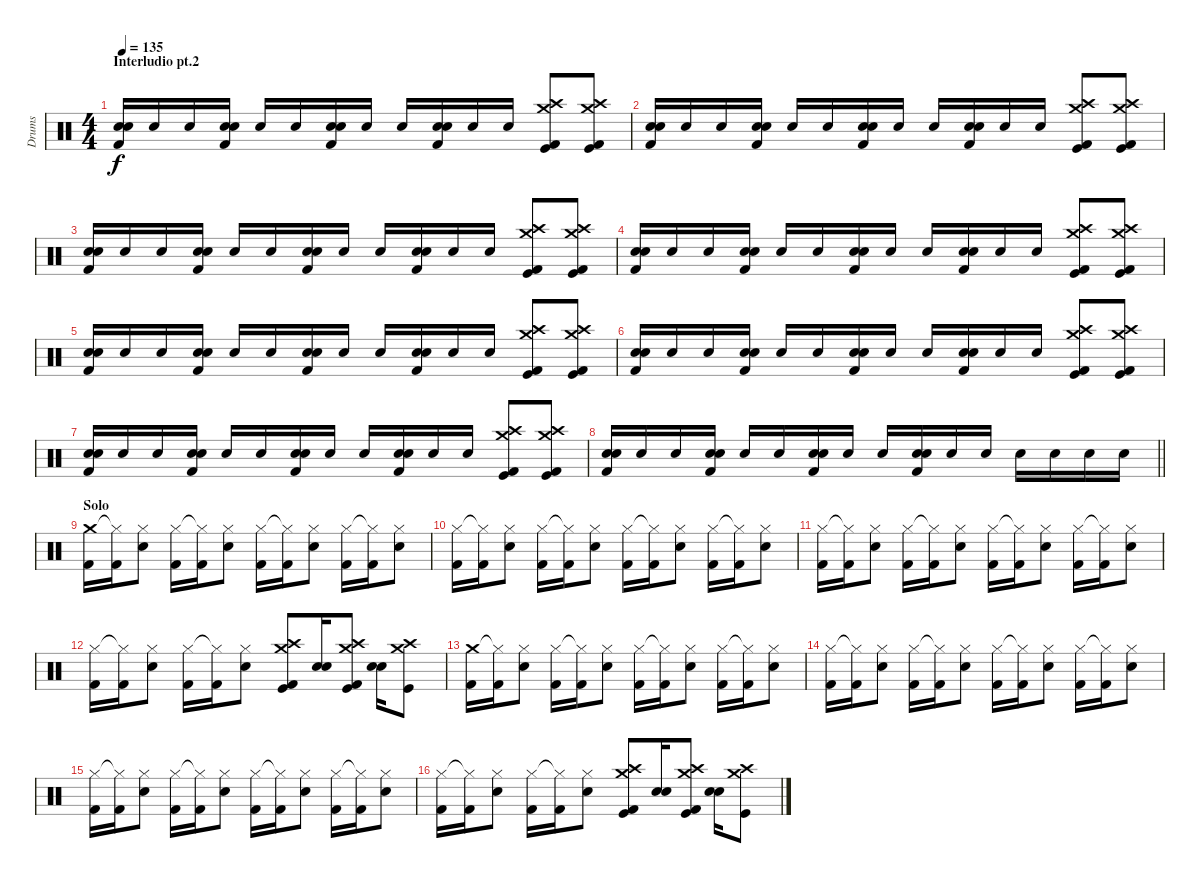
\track ("Drums" "Drums") {instrument percussion}
\staff {score}
\articulation defaults
\ts (4 4)
\section ("" "Interludio pt.2")
\tempo 135
\clef neutral
\ks c
("Electric Snare (hit)" "Snare (hit) 2" "Kick (hit) 2").16{dy f} "Snare (hit) 2".16 "Snare (hit) 2".16 ("Electric Snare (hit)" "Snare (hit) 2" "Kick (hit) 2").16 "Snare (hit) 2".16 "Snare (hit) 2".16 ("Electric Snare (hit)" "Snare (hit) 2" "Kick (hit) 2").16 "Snare (hit) 2".16 "Snare (hit) 2".16 ("Electric Snare (hit)" "Snare (hit) 2" "Kick (hit) 2").16 "Snare (hit) 2".16 "Snare (hit) 2".16 ("Crash medium (hit)" "Crash high (hit)" "Kick (hit) 2" "Kick (hit)").8 ("Crash medium (hit)" "Crash high (hit)" "Kick (hit) 2" "Kick (hit)").8 |
("Electric Snare (hit)" "Snare (hit) 2" "Kick (hit) 2").16 "Snare (hit) 2".16 "Snare (hit) 2".16 ("Electric Snare (hit)" "Snare (hit) 2" "Kick (hit) 2").16 "Snare (hit) 2".16 "Snare (hit) 2".16 ("Electric Snare (hit)" "Snare (hit) 2" "Kick (hit) 2").16 "Snare (hit) 2".16 "Snare (hit) 2".16 ("Electric Snare (hit)" "Snare (hit) 2" "Kick (hit) 2").16 "Snare (hit) 2".16 "Snare (hit) 2".16 ("Crash medium (hit)" "Crash high (hit)" "Kick (hit) 2" "Kick (hit)").8 ("Crash medium (hit)" "Crash high (hit)" "Kick (hit) 2" "Kick (hit)").8 |
("Electric Snare (hit)" "Snare (hit) 2" "Kick (hit) 2").16 "Snare (hit) 2".16 "Snare (hit) 2".16 ("Electric Snare (hit)" "Snare (hit) 2" "Kick (hit) 2").16 "Snare (hit) 2".16 "Snare (hit) 2".16 ("Electric Snare (hit)" "Snare (hit) 2" "Kick (hit) 2").16 "Snare (hit) 2".16 "Snare (hit) 2".16 ("Electric Snare (hit)" "Snare (hit) 2" "Kick (hit) 2").16 "Snare (hit) 2".16 "Snare (hit) 2".16 ("Crash medium (hit)" "Crash high (hit)" "Kick (hit) 2" "Kick (hit)").8 ("Crash medium (hit)" "Crash high (hit)" "Kick (hit) 2" "Kick (hit)").8 |
("Electric Snare (hit)" "Snare (hit) 2" "Kick (hit) 2").16 "Snare (hit) 2".16 "Snare (hit) 2".16 ("Electric Snare (hit)" "Snare (hit) 2" "Kick (hit) 2").16 "Snare (hit) 2".16 "Snare (hit) 2".16 ("Electric Snare (hit)" "Snare (hit) 2" "Kick (hit) 2").16 "Snare (hit) 2".16 "Snare (hit) 2".16 ("Electric Snare (hit)" "Snare (hit) 2" "Kick (hit) 2").16 "Snare (hit) 2".16 "Snare (hit) 2".16 ("Crash medium (hit)" "Crash high (hit)" "Kick (hit) 2" "Kick (hit)").8 ("Crash medium (hit)" "Crash high (hit)" "Kick (hit) 2" "Kick (hit)").8 |
("Electric Snare (hit)" "Snare (hit) 2" "Kick (hit) 2").16 "Snare (hit) 2".16 "Snare (hit) 2".16 ("Electric Snare (hit)" "Snare (hit) 2" "Kick (hit) 2").16 "Snare (hit) 2".16 "Snare (hit) 2".16 ("Electric Snare (hit)" "Snare (hit) 2" "Kick (hit) 2").16 "Snare (hit) 2".16 "Snare (hit) 2".16 ("Electric Snare (hit)" "Snare (hit) 2" "Kick (hit) 2").16 "Snare (hit) 2".16 "Snare (hit) 2".16 ("Crash medium (hit)" "Crash high (hit)" "Kick (hit) 2" "Kick (hit)").8 ("Crash medium (hit)" "Crash high (hit)" "Kick (hit) 2" "Kick (hit)").8 |
("Electric Snare (hit)" "Snare (hit) 2" "Kick (hit) 2").16 "Snare (hit) 2".16 "Snare (hit) 2".16 ("Electric Snare (hit)" "Snare (hit) 2" "Kick (hit) 2").16 "Snare (hit) 2".16 "Snare (hit) 2".16 ("Electric Snare (hit)" "Snare (hit) 2" "Kick (hit) 2").16 "Snare (hit) 2".16 "Snare (hit) 2".16 ("Electric Snare (hit)" "Snare (hit) 2" "Kick (hit) 2").16 "Snare (hit) 2".16 "Snare (hit) 2".16 ("Crash medium (hit)" "Crash high (hit)" "Kick (hit) 2" "Kick (hit)").8 ("Crash medium (hit)" "Crash high (hit)" "Kick (hit) 2" "Kick (hit)").8 |
("Electric Snare (hit)" "Snare (hit) 2" "Kick (hit) 2").16 "Snare (hit) 2".16 "Snare (hit) 2".16 ("Electric Snare (hit)" "Snare (hit) 2" "Kick (hit) 2").16 "Snare (hit) 2".16 "Snare (hit) 2".16 ("Electric Snare (hit)" "Snare (hit) 2" "Kick (hit) 2").16 "Snare (hit) 2".16 "Snare (hit) 2".16 ("Electric Snare (hit)" "Snare (hit) 2" "Kick (hit) 2").16 "Snare (hit) 2".16 "Snare (hit) 2".16 ("Crash medium (hit)" "Crash high (hit)" "Kick (hit) 2" "Kick (hit)").8 ("Crash medium (hit)" "Crash high (hit)" "Kick (hit) 2" "Kick (hit)").8 |
\barLineRight lightlight
("Electric Snare (hit)" "Snare (hit) 2" "Kick (hit) 2").16 "Snare (hit) 2".16 "Snare (hit) 2".16 ("Electric Snare (hit)" "Snare (hit) 2" "Kick (hit) 2").16 "Snare (hit) 2".16 "Snare (hit) 2".16 ("Electric Snare (hit)" "Snare (hit) 2" "Kick (hit) 2").16 "Snare (hit) 2".16 "Snare (hit) 2".16 ("Electric Snare (hit)" "Snare (hit) 2" "Kick (hit) 2").16 "Snare (hit) 2".16 "Snare (hit) 2".16 "Snare (hit) 2".16 "Snare (hit) 2".16 "Snare (hit) 2".16 "Snare (hit) 2".16 |
\section ("" "Solo")
("Crash medium (hit)" "Kick (hit) 2").16 ("Hi-Hat (closed)"{t} "Kick (hit) 2").16 ("Hi-Hat (closed)" "Snare (hit) 2").8 ("Hi-Hat (closed)" "Kick (hit) 2").16 ("Hi-Hat (closed)"{t} "Kick (hit) 2").16 ("Hi-Hat (closed)" "Snare (hit) 2").8 ("Hi-Hat (closed)" "Kick (hit) 2").16 ("Hi-Hat (closed)"{t} "Kick (hit) 2").16 ("Hi-Hat (closed)" "Snare (hit) 2").8 ("Hi-Hat (closed)" "Kick (hit) 2").16 ("Hi-Hat (closed)"{t} "Kick (hit) 2").16 ("Hi-Hat (closed)" "Snare (hit) 2").8 |
("Hi-Hat (closed)" "Kick (hit) 2").16 ("Hi-Hat (closed)"{t} "Kick (hit) 2").16 ("Hi-Hat (closed)" "Snare (hit) 2").8 ("Hi-Hat (closed)" "Kick (hit) 2").16 ("Hi-Hat (closed)"{t} "Kick (hit) 2").16 ("Hi-Hat (closed)" "Snare (hit) 2").8 ("Hi-Hat (closed)" "Kick (hit) 2").16 ("Hi-Hat (closed)"{t} "Kick (hit) 2").16 ("Hi-Hat (closed)" "Snare (hit) 2").8 ("Hi-Hat (closed)" "Kick (hit) 2").16 ("Hi-Hat (closed)"{t} "Kick (hit) 2").16 ("Hi-Hat (closed)" "Snare (hit) 2").8 |
("Hi-Hat (closed)" "Kick (hit) 2").16 ("Hi-Hat (closed)"{t} "Kick (hit) 2").16 ("Hi-Hat (closed)" "Snare (hit) 2").8 ("Hi-Hat (closed)" "Kick (hit) 2").16 ("Hi-Hat (closed)"{t} "Kick (hit) 2").16 ("Hi-Hat (closed)" "Snare (hit) 2").8 ("Hi-Hat (closed)" "Kick (hit) 2").16 ("Hi-Hat (closed)"{t} "Kick (hit) 2").16 ("Hi-Hat (closed)" "Snare (hit) 2").8 ("Hi-Hat (closed)" "Kick (hit) 2").16 ("Hi-Hat (closed)"{t} "Kick (hit) 2").16 ("Hi-Hat (closed)" "Snare (hit) 2").8 |
("Hi-Hat (closed)" "Kick (hit) 2").16 ("Hi-Hat (closed)"{t} "Kick (hit) 2").16 ("Hi-Hat (closed)" "Snare (hit) 2").8 ("Hi-Hat (closed)" "Kick (hit) 2").16 ("Hi-Hat (closed)"{t} "Kick (hit) 2").16 ("Hi-Hat (closed)" "Snare (hit) 2").8 ("Crash medium (hit)" "Crash high (hit)" "Kick (hit) 2" "Kick (hit)").8 ("Electric Snare (hit)" "Snare (hit) 2").16 ("Crash medium (hit)" "Crash high (hit)" "Kick (hit) 2" "Kick (hit)").8 ("Electric Snare (hit)" "Snare (hit) 2").16 ("Crash medium (hit)" "Crash high (hit)" "Kick (hit)").8 |
("Crash medium (hit)" "Kick (hit) 2").16 ("Hi-Hat (closed)"{t} "Kick (hit) 2").16 ("Hi-Hat (closed)" "Snare (hit) 2").8 ("Hi-Hat (closed)" "Kick (hit) 2").16 ("Hi-Hat (closed)"{t} "Kick (hit) 2").16 ("Hi-Hat (closed)" "Snare (hit) 2").8 ("Hi-Hat (closed)" "Kick (hit) 2").16 ("Hi-Hat (closed)"{t} "Kick (hit) 2").16 ("Hi-Hat (closed)" "Snare (hit) 2").8 ("Hi-Hat (closed)" "Kick (hit) 2").16 ("Hi-Hat (closed)"{t} "Kick (hit) 2").16 ("Hi-Hat (closed)" "Snare (hit) 2").8 |
("Hi-Hat (closed)" "Kick (hit) 2").16 ("Hi-Hat (closed)"{t} "Kick (hit) 2").16 ("Hi-Hat (closed)" "Snare (hit) 2").8 ("Hi-Hat (closed)" "Kick (hit) 2").16 ("Hi-Hat (closed)"{t} "Kick (hit) 2").16 ("Hi-Hat (closed)" "Snare (hit) 2").8 ("Hi-Hat (closed)" "Kick (hit) 2").16 ("Hi-Hat (closed)"{t} "Kick (hit) 2").16 ("Hi-Hat (closed)" "Snare (hit) 2").8 ("Hi-Hat (closed)" "Kick (hit) 2").16 ("Hi-Hat (closed)"{t} "Kick (hit) 2").16 ("Hi-Hat (closed)" "Snare (hit) 2").8 |
("Hi-Hat (closed)" "Kick (hit) 2").16 ("Hi-Hat (closed)"{t} "Kick (hit) 2").16 ("Hi-Hat (closed)" "Snare (hit) 2").8 ("Hi-Hat (closed)" "Kick (hit) 2").16 ("Hi-Hat (closed)"{t} "Kick (hit) 2").16 ("Hi-Hat (closed)" "Snare (hit) 2").8 ("Hi-Hat (closed)" "Kick (hit) 2").16 ("Hi-Hat (closed)"{t} "Kick (hit) 2").16 ("Hi-Hat (closed)" "Snare (hit) 2").8 ("Hi-Hat (closed)" "Kick (hit) 2").16 ("Hi-Hat (closed)"{t} "Kick (hit) 2").16 ("Hi-Hat (closed)" "Snare (hit) 2").8 |
("Hi-Hat (closed)" "Kick (hit) 2").16 ("Hi-Hat (closed)"{t} "Kick (hit) 2").16 ("Hi-Hat (closed)" "Snare (hit) 2").8 ("Hi-Hat (closed)" "Kick (hit) 2").16 ("Hi-Hat (closed)"{t} "Kick (hit) 2").16 ("Hi-Hat (closed)" "Snare (hit) 2").8 ("Crash medium (hit)" "Crash high (hit)" "Kick (hit) 2" "Kick (hit)").8 ("Electric Snare (hit)" "Snare (hit) 2").16 ("Crash medium (hit)" "Crash high (hit)" "Kick (hit) 2" "Kick (hit)").8 ("Electric Snare (hit)" "Snare (hit) 2").16 ("Crash medium (hit)" "Crash high (hit)" "Kick (hit)").8
